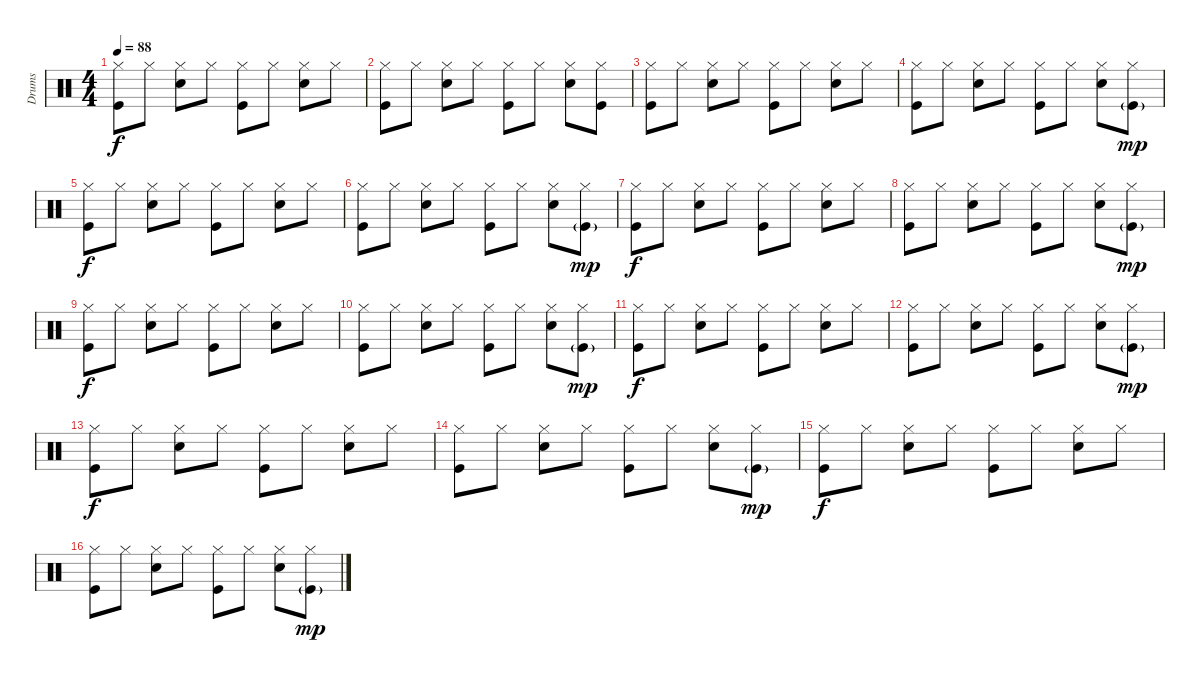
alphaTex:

\track ("Drums" "Drums") {instrument percussion}
\staff {score}
\articulation defaults
\ts (4 4)
\tempo 88
\clef neutral
\ks c
("Hi-Hat (closed)" "Kick (hit)").8{dy f} "Hi-Hat (closed)".8 ("Hi-Hat (closed)" "Snare (hit) 2").8 "Hi-Hat (closed)".8 ("Hi-Hat (closed)" "Kick (hit)").8 "Hi-Hat (closed)".8 ("Hi-Hat (closed)" "Snare (hit) 2").8 "Hi-Hat (closed)".8 |
("Hi-Hat (closed)" "Kick (hit)").8 "Hi-Hat (closed)".8 ("Hi-Hat (closed)" "Snare (hit) 2").8 "Hi-Hat (closed)".8 ("Hi-Hat (closed)" "Kick (hit)").8 "Hi-Hat (closed)".8 ("Hi-Hat (closed)" "Snare (hit) 2").8 ("Hi-Hat (closed)" "Kick (hit)").8 |
("Hi-Hat (closed)" "Kick (hit)").8 "Hi-Hat (closed)".8 ("Hi-Hat (closed)" "Snare (hit) 2").8 "Hi-Hat (closed)".8 ("Hi-Hat (closed)" "Kick (hit)").8 "Hi-Hat (closed)".8 ("Hi-Hat (closed)" "Snare (hit) 2").8 "Hi-Hat (closed)".8 |
("Hi-Hat (closed)" "Kick (hit)").8 "Hi-Hat (closed)".8 ("Hi-Hat (closed)" "Snare (hit) 2").8 "Hi-Hat (closed)".8 ("Hi-Hat (closed)" "Kick (hit)").8 "Hi-Hat (closed)".8 ("Hi-Hat (closed)" "Snare (hit) 2").8 ("Hi-Hat (closed)" "Kick (hit)"{g}).8{dy mp} |
("Hi-Hat (closed)" "Kick (hit)").8{dy f} "Hi-Hat (closed)".8 ("Hi-Hat (closed)" "Snare (hit) 2").8 "Hi-Hat (closed)".8 ("Hi-Hat (closed)" "Kick (hit)").8 "Hi-Hat (closed)".8 ("Hi-Hat (closed)" "Snare (hit) 2").8 "Hi-Hat (closed)".8 |
("Hi-Hat (closed)" "Kick (hit)").8 "Hi-Hat (closed)".8 ("Hi-Hat (closed)" "Snare (hit) 2").8 "Hi-Hat (closed)".8 ("Hi-Hat (closed)" "Kick (hit)").8 "Hi-Hat (closed)".8 ("Hi-Hat (closed)" "Snare (hit) 2").8 ("Hi-Hat (closed)" "Kick (hit)"{g}).8{dy mp} |
("Hi-Hat (closed)" "Kick (hit)").8{dy f} "Hi-Hat (closed)".8 ("Hi-Hat (closed)" "Snare (hit) 2").8 "Hi-Hat (closed)".8 ("Hi-Hat (closed)" "Kick (hit)").8 "Hi-Hat (closed)".8 ("Hi-Hat (closed)" "Snare (hit) 2").8 "Hi-Hat (closed)".8 |
("Hi-Hat (closed)" "Kick (hit)").8 "Hi-Hat (closed)".8 ("Hi-Hat (closed)" "Snare (hit) 2").8 "Hi-Hat (closed)".8 ("Hi-Hat (closed)" "Kick (hit)").8 "Hi-Hat (closed)".8 ("Hi-Hat (closed)" "Snare (hit) 2").8 ("Hi-Hat (closed)" "Kick (hit)"{g}).8{dy mp} |
("Hi-Hat (closed)" "Kick (hit)").8{dy f} "Hi-Hat (closed)".8 ("Hi-Hat (closed)" "Snare (hit) 2").8 "Hi-Hat (closed)".8 ("Hi-Hat (closed)" "Kick (hit)").8 "Hi-Hat (closed)".8 ("Hi-Hat (closed)" "Snare (hit) 2").8 "Hi-Hat (closed)".8 |
("Hi-Hat (closed)" "Kick (hit)").8 "Hi-Hat (closed)".8 ("Hi-Hat (closed)" "Snare (hit) 2").8 "Hi-Hat (closed)".8 ("Hi-Hat (closed)" "Kick (hit)").8 "Hi-Hat (closed)".8 ("Hi-Hat (closed)" "Snare (hit) 2").8 ("Hi-Hat (closed)" "Kick (hit)"{g}).8{dy mp} |
("Hi-Hat (closed)" "Kick (hit)").8{dy f} "Hi-Hat (closed)".8 ("Hi-Hat (closed)" "Snare (hit) 2").8 "Hi-Hat (closed)".8 ("Hi-Hat (closed)" "Kick (hit)").8 "Hi-Hat (closed)".8 ("Hi-Hat (closed)" "Snare (hit) 2").8 "Hi-Hat (closed)".8 |
("Hi-Hat (closed)" "Kick (hit)").8 "Hi-Hat (closed)".8 ("Hi-Hat (closed)" "Snare (hit) 2").8 "Hi-Hat (closed)".8 ("Hi-Hat (closed)" "Kick (hit)").8 "Hi-Hat (closed)".8 ("Hi-Hat (closed)" "Snare (hit) 2").8 ("Hi-Hat (closed)" "Kick (hit)"{g}).8{dy mp} |
("Hi-Hat (closed)" "Kick (hit)").8{dy f} "Hi-Hat (closed)".8 ("Hi-Hat (closed)" "Snare (hit) 2").8 "Hi-Hat (closed)".8 ("Hi-Hat (closed)" "Kick (hit)").8 "Hi-Hat (closed)".8 ("Hi-Hat (closed)" "Snare (hit) 2").8 "Hi-Hat (closed)".8 |
("Hi-Hat (closed)" "Kick (hit)").8 "Hi-Hat (closed)".8 ("Hi-Hat (closed)" "Snare (hit) 2").8 "Hi-Hat (closed)".8 ("Hi-Hat (closed)" "Kick (hit)").8 "Hi-Hat (closed)".8 ("Hi-Hat (closed)" "Snare (hit) 2").8 ("Hi-Hat (closed)" "Kick (hit)"{g}).8{dy mp} |
("Hi-Hat (closed)" "Kick (hit)").8{dy f} "Hi-Hat (closed)".8 ("Hi-Hat (closed)" "Snare (hit) 2").8 "Hi-Hat (closed)".8 ("Hi-Hat (closed)" "Kick (hit)").8 "Hi-Hat (closed)".8 ("Hi-Hat (closed)" "Snare (hit) 2").8 "Hi-Hat (closed)".8 |
("Hi-Hat (closed)" "Kick (hit)").8 "Hi-Hat (closed)".8 ("Hi-Hat (closed)" "Snare (hit) 2").8 "Hi-Hat (closed)".8 ("Hi-Hat (closed)" "Kick (hit)").8 "Hi-Hat (closed)".8 ("Hi-Hat (closed)" "Snare (hit) 2").8 ("Hi-Hat (closed)" "Kick (hit)"{g}).8{dy mp}
